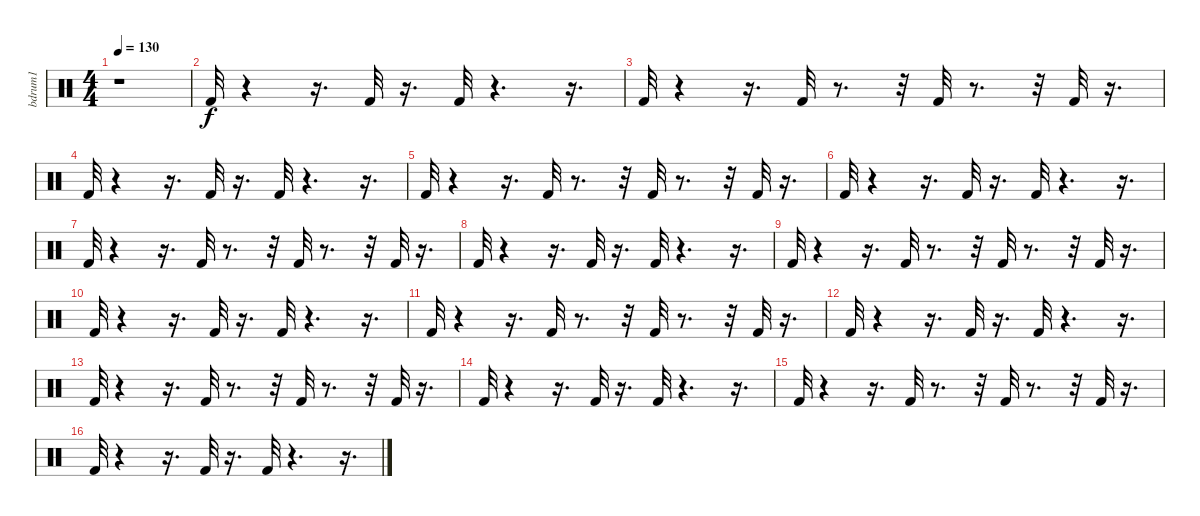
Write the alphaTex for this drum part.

\track ("bdrum1              " "bdrum1    ") {instrument percussion}
\staff {score}
\articulation defaults
\ts (4 4)
\tempo 130
\clef neutral
\ks c
r.1{dy f} |
"Kick (hit) 2".32 r.4 r.16{d} "Kick (hit) 2".32 r.16{d} "Kick (hit) 2".32 r.4{d} r.16{d} |
"Kick (hit) 2".32 r.4 r.16{d} "Kick (hit) 2".32 r.8{d} r.32 "Kick (hit) 2".32 r.8{d} r.32 "Kick (hit) 2".32 r.16{d} |
"Kick (hit) 2".32 r.4 r.16{d} "Kick (hit) 2".32 r.16{d} "Kick (hit) 2".32 r.4{d} r.16{d} |
"Kick (hit) 2".32 r.4 r.16{d} "Kick (hit) 2".32 r.8{d} r.32 "Kick (hit) 2".32 r.8{d} r.32 "Kick (hit) 2".32 r.16{d} |
"Kick (hit) 2".32 r.4 r.16{d} "Kick (hit) 2".32 r.16{d} "Kick (hit) 2".32 r.4{d} r.16{d} |
"Kick (hit) 2".32 r.4 r.16{d} "Kick (hit) 2".32 r.8{d} r.32 "Kick (hit) 2".32 r.8{d} r.32 "Kick (hit) 2".32 r.16{d} |
"Kick (hit) 2".32 r.4 r.16{d} "Kick (hit) 2".32 r.16{d} "Kick (hit) 2".32 r.4{d} r.16{d} |
"Kick (hit) 2".32 r.4 r.16{d} "Kick (hit) 2".32 r.8{d} r.32 "Kick (hit) 2".32 r.8{d} r.32 "Kick (hit) 2".32 r.16{d} |
"Kick (hit) 2".32 r.4 r.16{d} "Kick (hit) 2".32 r.16{d} "Kick (hit) 2".32 r.4{d} r.16{d} |
"Kick (hit) 2".32 r.4 r.16{d} "Kick (hit) 2".32 r.8{d} r.32 "Kick (hit) 2".32 r.8{d} r.32 "Kick (hit) 2".32 r.16{d} |
"Kick (hit) 2".32 r.4 r.16{d} "Kick (hit) 2".32 r.16{d} "Kick (hit) 2".32 r.4{d} r.16{d} |
"Kick (hit) 2".32 r.4 r.16{d} "Kick (hit) 2".32 r.8{d} r.32 "Kick (hit) 2".32 r.8{d} r.32 "Kick (hit) 2".32 r.16{d} |
"Kick (hit) 2".32 r.4 r.16{d} "Kick (hit) 2".32 r.16{d} "Kick (hit) 2".32 r.4{d} r.16{d} |
"Kick (hit) 2".32 r.4 r.16{d} "Kick (hit) 2".32 r.8{d} r.32 "Kick (hit) 2".32 r.8{d} r.32 "Kick (hit) 2".32 r.16{d} |
"Kick (hit) 2".32 r.4 r.16{d} "Kick (hit) 2".32 r.16{d} "Kick (hit) 2".32 r.4{d} r.16{d}
